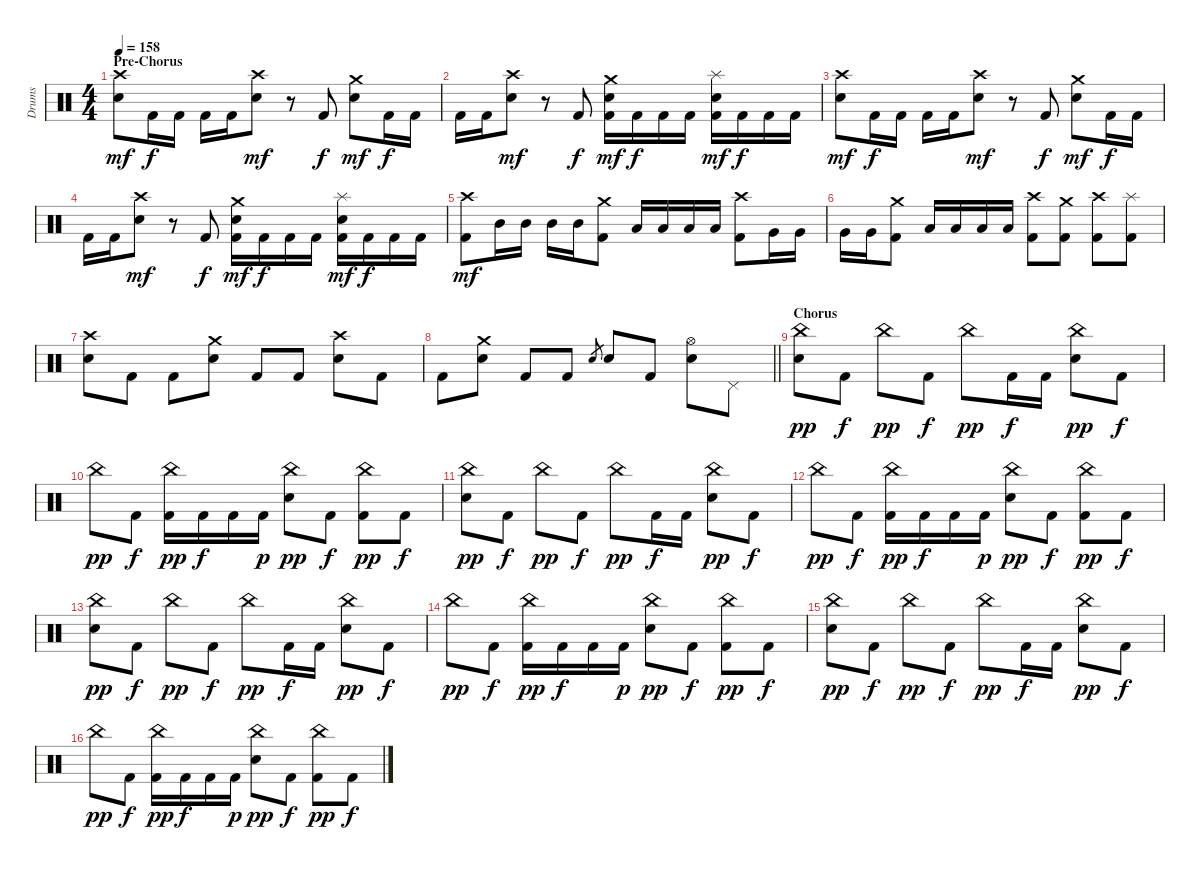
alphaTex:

\track ("Drums" "Drums") {instrument percussion}
\staff {score}
\articulation defaults
\ts (4 4)
\section ("" "Pre-Chorus")
\tempo 158
\clef neutral
\ks c
("Crash high (hit)" "Snare (hit) 2").8{dy mf} "Kick (hit) 2".16{dy f} "Kick (hit) 2".16 "Kick (hit) 2".16 "Kick (hit) 2".16 ("Crash high (hit)" "Snare (hit) 2").8{dy mf} r.8 "Kick (hit) 2".8{dy f} ("Crash medium (hit)" "Snare (hit) 2").8{dy mf} "Kick (hit) 2".16{dy f} "Kick (hit) 2".16 |
"Kick (hit) 2".16 "Kick (hit) 2".16 ("Crash high (hit)" "Snare (hit) 2").8{dy mf} r.8 "Kick (hit) 2".8{dy f} ("Crash medium (hit)" "Snare (hit) 2" "Kick (hit) 2").16{dy mf} "Kick (hit) 2".16{dy f} "Kick (hit) 2".16 "Kick (hit) 2".16 ("Splash (hit)" "Snare (hit) 2" "Kick (hit) 2").16{dy mf} "Kick (hit) 2".16{dy f} "Kick (hit) 2".16 "Kick (hit) 2".16 |
("Crash high (hit)" "Snare (hit) 2").8{dy mf} "Kick (hit) 2".16{dy f} "Kick (hit) 2".16 "Kick (hit) 2".16 "Kick (hit) 2".16 ("Crash high (hit)" "Snare (hit) 2").8{dy mf} r.8 "Kick (hit) 2".8{dy f} ("Crash medium (hit)" "Snare (hit) 2").8{dy mf} "Kick (hit) 2".16{dy f} "Kick (hit) 2".16 |
"Kick (hit) 2".16 "Kick (hit) 2".16 ("Crash high (hit)" "Snare (hit) 2").8{dy mf} r.8 "Kick (hit) 2".8{dy f} ("Crash medium (hit)" "Snare (hit) 2" "Kick (hit) 2").16{dy mf} "Kick (hit) 2".16{dy f} "Kick (hit) 2".16 "Kick (hit) 2".16 ("Splash (hit)" "Snare (hit) 2" "Kick (hit) 2").16{dy mf} "Kick (hit) 2".16{dy f} "Kick (hit) 2".16 "Kick (hit) 2".16 |
("Crash high (hit)" "Kick (hit) 2").8{dy mf} "Mid Tom (hit)".16 "Mid Tom (hit)".16 "Mid Tom (hit)".16 "Mid Tom (hit)".16 ("Crash medium (hit)" "Kick (hit) 2").8 "Low Tom (hit)".16 "Low Tom (hit)".16 "Low Tom (hit)".16 "Low Tom (hit)".16 ("Crash high (hit)" "Kick (hit) 2").8 "Very Low Tom (hit)".16 "Very Low Tom (hit)".16 |
"Very Low Tom (hit)".16 "Very Low Tom (hit)".16 ("Crash medium (hit)" "Kick (hit) 2").8 "Low Floor Tom (hit)".16 "Low Floor Tom (hit)".16 "Low Floor Tom (hit)".16 "Low Floor Tom (hit)".16 ("Crash high (hit)" "Kick (hit) 2").8 ("Crash medium (hit)" "Kick (hit) 2").8 ("Crash high (hit)" "Kick (hit) 2").8 ("Splash (hit)" "Kick (hit) 2").8 |
("Crash high (hit)" "Snare (hit) 2").8 "Kick (hit) 2".8 "Kick (hit) 2".8 ("Crash medium (hit)" "Snare (hit) 2").8 "Kick (hit) 2".8 "Kick (hit) 2".8 ("Crash high (hit)" "Snare (hit) 2").8 "Kick (hit) 2".8 |
\barLineRight lightlight "Kick (hit) 2".8
("Crash medium (hit)" "Snare (hit) 2").8 "Kick (hit) 2".8 "Kick (hit) 2".8 "Snare (hit) 2".8{gr} "Snare (hit) 2".8 "Kick (hit) 2".8 ("Hi-Hat (open)" "Snare (hit) 2").8 "Pedal Hi-Hat (hit)".8 |
\section ("" "Chorus")
("China (hit)" "Snare (hit) 2").8{dy pp} "Kick (hit) 2".8{dy f} "China (hit)".8{dy pp} "Kick (hit) 2".8{dy f} "China (hit)".8{dy pp} "Kick (hit) 2".16{dy f} "Kick (hit) 2".16 ("China (hit)" "Snare (hit) 2").8{dy pp} "Kick (hit) 2".8{dy f} |
"China (hit)".8{dy pp} "Kick (hit) 2".8{dy f} ("China (hit)" "Kick (hit) 2").16{dy pp} "Kick (hit) 2".16{dy f} "Kick (hit) 2".16 "Kick (hit) 2".16{dy p} ("China (hit)" "Snare (hit) 2").8{dy pp} "Kick (hit) 2".8{dy f} ("China (hit)" "Kick (hit) 2").8{dy pp} "Kick (hit) 2".8{dy f} |
("China (hit)" "Snare (hit) 2").8{dy pp} "Kick (hit) 2".8{dy f} "China (hit)".8{dy pp} "Kick (hit) 2".8{dy f} "China (hit)".8{dy pp} "Kick (hit) 2".16{dy f} "Kick (hit) 2".16 ("China (hit)" "Snare (hit) 2").8{dy pp} "Kick (hit) 2".8{dy f} |
"China (hit)".8{dy pp} "Kick (hit) 2".8{dy f} ("China (hit)" "Kick (hit) 2").16{dy pp} "Kick (hit) 2".16{dy f} "Kick (hit) 2".16 "Kick (hit) 2".16{dy p} ("China (hit)" "Snare (hit) 2").8{dy pp} "Kick (hit) 2".8{dy f} ("China (hit)" "Kick (hit) 2").8{dy pp} "Kick (hit) 2".8{dy f} |
("China (hit)" "Snare (hit) 2").8{dy pp} "Kick (hit) 2".8{dy f} "China (hit)".8{dy pp} "Kick (hit) 2".8{dy f} "China (hit)".8{dy pp} "Kick (hit) 2".16{dy f} "Kick (hit) 2".16 ("China (hit)" "Snare (hit) 2").8{dy pp} "Kick (hit) 2".8{dy f} |
"China (hit)".8{dy pp} "Kick (hit) 2".8{dy f} ("China (hit)" "Kick (hit) 2").16{dy pp} "Kick (hit) 2".16{dy f} "Kick (hit) 2".16 "Kick (hit) 2".16{dy p} ("China (hit)" "Snare (hit) 2").8{dy pp} "Kick (hit) 2".8{dy f} ("China (hit)" "Kick (hit) 2").8{dy pp} "Kick (hit) 2".8{dy f} |
("China (hit)" "Snare (hit) 2").8{dy pp} "Kick (hit) 2".8{dy f} "China (hit)".8{dy pp} "Kick (hit) 2".8{dy f} "China (hit)".8{dy pp} "Kick (hit) 2".16{dy f} "Kick (hit) 2".16 ("China (hit)" "Snare (hit) 2").8{dy pp} "Kick (hit) 2".8{dy f} |
"China (hit)".8{dy pp} "Kick (hit) 2".8{dy f} ("China (hit)" "Kick (hit) 2").16{dy pp} "Kick (hit) 2".16{dy f} "Kick (hit) 2".16 "Kick (hit) 2".16{dy p} ("China (hit)" "Snare (hit) 2").8{dy pp} "Kick (hit) 2".8{dy f} ("China (hit)" "Kick (hit) 2").8{dy pp} "Kick (hit) 2".8{dy f}
